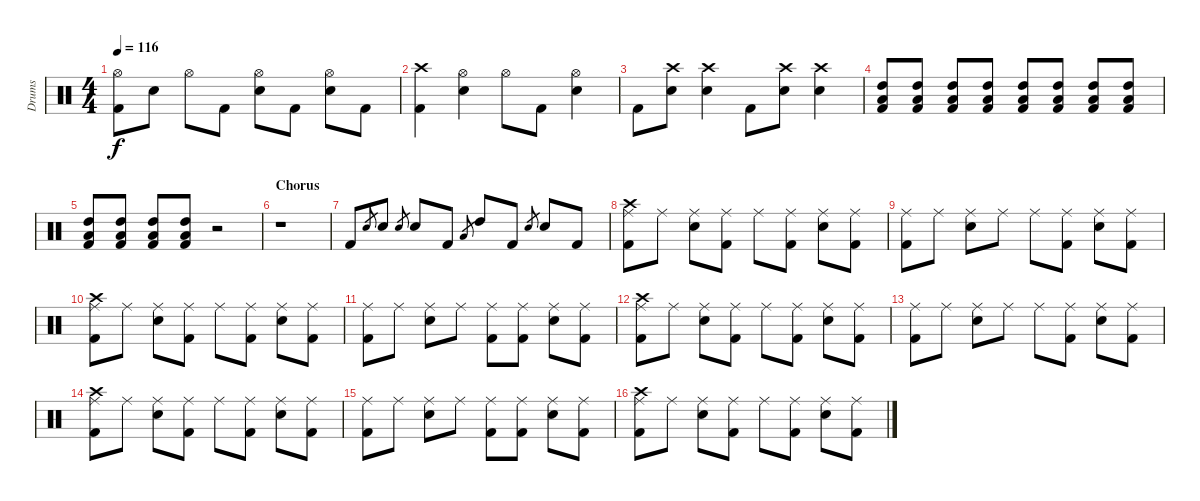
\track ("Drums" "Drums") {instrument percussion}
\staff {score}
\articulation defaults
\ts (4 4)
\tempo 116
\clef neutral
\ks c
("Hi-Hat (open)" "Kick (hit) 2").8{dy f} "Snare (hit) 2".8 "Hi-Hat (open)".8 "Kick (hit) 2".8 ("Hi-Hat (open)" "Snare (hit) 2").8 "Kick (hit) 2".8 ("Hi-Hat (open)" "Snare (hit) 2").8 "Kick (hit) 2".8 |
("Crash high (hit)" "Kick (hit) 2").4 ("Hi-Hat (open)" "Snare (hit) 2").4 "Hi-Hat (open)".8 "Kick (hit) 2".8 ("Hi-Hat (open)" "Snare (hit) 2").4 |
"Kick (hit) 2".8 ("Crash high (hit)" "Snare (hit) 2").8 ("Crash high (hit)" "Snare (hit) 2").4 "Kick (hit) 2".8 ("Crash high (hit)" "Snare (hit) 2").8 ("Crash high (hit)" "Snare (hit) 2").4 |
("High Tom (hit)" "Low Floor Tom (hit)" "Kick (hit) 2").8 ("High Tom (hit)" "Low Floor Tom (hit)" "Kick (hit) 2").8 ("High Tom (hit)" "Low Floor Tom (hit)" "Kick (hit) 2").8 ("High Tom (hit)" "Low Floor Tom (hit)" "Kick (hit) 2").8 ("High Tom (hit)" "Low Floor Tom (hit)" "Kick (hit) 2").8 ("High Tom (hit)" "Low Floor Tom (hit)" "Kick (hit) 2").8 ("High Tom (hit)" "Low Floor Tom (hit)" "Kick (hit) 2").8 ("High Tom (hit)" "Low Floor Tom (hit)" "Kick (hit) 2").8 |
("High Tom (hit)" "Low Floor Tom (hit)" "Kick (hit) 2").8 ("High Tom (hit)" "Low Floor Tom (hit)" "Kick (hit) 2").8 ("High Tom (hit)" "Low Floor Tom (hit)" "Kick (hit) 2").8 ("High Tom (hit)" "Low Floor Tom (hit)" "Kick (hit) 2").8 r.2 |
\section ("" "Chorus")
r.1 |
"Kick (hit) 2".8 "Snare (hit) 2".8{gr} "Snare (hit) 2".8 "Snare (hit) 2".8{gr} "Snare (hit) 2".8 "Kick (hit) 2".8 "Low Floor Tom (hit)".8{gr} "High Tom (hit)".8 "Kick (hit) 2".8 "Snare (hit) 2".8{gr} "Snare (hit) 2".8 "Kick (hit) 2".8 |
("Crash high (hit)" "Ride (middle)" "Kick (hit) 2").8 "Ride (middle)".8 ("Ride (middle)" "Snare (hit) 2").8 ("Ride (middle)" "Kick (hit) 2").8 "Ride (middle)".8 ("Ride (middle)" "Kick (hit) 2").8 ("Ride (middle)" "Snare (hit) 2").8 ("Ride (middle)" "Kick (hit) 2").8 |
("Ride (middle)" "Kick (hit) 2").8 "Ride (middle)".8 ("Ride (middle)" "Snare (hit) 2").8 "Ride (middle)".8 "Ride (middle)".8 ("Ride (middle)" "Kick (hit) 2").8 ("Ride (middle)" "Snare (hit) 2").8 ("Ride (middle)" "Kick (hit) 2").8 |
("Crash high (hit)" "Ride (middle)" "Kick (hit) 2").8 "Ride (middle)".8 ("Ride (middle)" "Snare (hit) 2").8 ("Ride (middle)" "Kick (hit) 2").8 "Ride (middle)".8 ("Ride (middle)" "Kick (hit) 2").8 ("Ride (middle)" "Snare (hit) 2").8 ("Ride (middle)" "Kick (hit) 2").8 |
("Ride (middle)" "Kick (hit) 2").8 "Ride (middle)".8 ("Ride (middle)" "Snare (hit) 2").8 "Ride (middle)".8 ("Ride (middle)" "Kick (hit) 2").8 ("Ride (middle)" "Kick (hit) 2").8 ("Ride (middle)" "Snare (hit) 2").8 ("Ride (middle)" "Kick (hit) 2").8 |
("Crash high (hit)" "Ride (middle)" "Kick (hit) 2").8 "Ride (middle)".8 ("Ride (middle)" "Snare (hit) 2").8 ("Ride (middle)" "Kick (hit) 2").8 "Ride (middle)".8 ("Ride (middle)" "Kick (hit) 2").8 ("Ride (middle)" "Snare (hit) 2").8 ("Ride (middle)" "Kick (hit) 2").8 |
("Ride (middle)" "Kick (hit) 2").8 "Ride (middle)".8 ("Ride (middle)" "Snare (hit) 2").8 "Ride (middle)".8 "Ride (middle)".8 ("Ride (middle)" "Kick (hit) 2").8 ("Ride (middle)" "Snare (hit) 2").8 ("Ride (middle)" "Kick (hit) 2").8 |
("Crash high (hit)" "Ride (middle)" "Kick (hit) 2").8 "Ride (middle)".8 ("Ride (middle)" "Snare (hit) 2").8 ("Ride (middle)" "Kick (hit) 2").8 "Ride (middle)".8 ("Ride (middle)" "Kick (hit) 2").8 ("Ride (middle)" "Snare (hit) 2").8 ("Ride (middle)" "Kick (hit) 2").8 |
("Ride (middle)" "Kick (hit) 2").8 "Ride (middle)".8 ("Ride (middle)" "Snare (hit) 2").8 "Ride (middle)".8 ("Ride (middle)" "Kick (hit) 2").8 ("Ride (middle)" "Kick (hit) 2").8 ("Ride (middle)" "Snare (hit) 2").8 ("Ride (middle)" "Kick (hit) 2").8 |
("Crash high (hit)" "Ride (middle)" "Kick (hit) 2").8 "Ride (middle)".8 ("Ride (middle)" "Snare (hit) 2").8 ("Ride (middle)" "Kick (hit) 2").8 "Ride (middle)".8 ("Ride (middle)" "Kick (hit) 2").8 ("Ride (middle)" "Snare (hit) 2").8 ("Ride (middle)" "Kick (hit) 2").8
